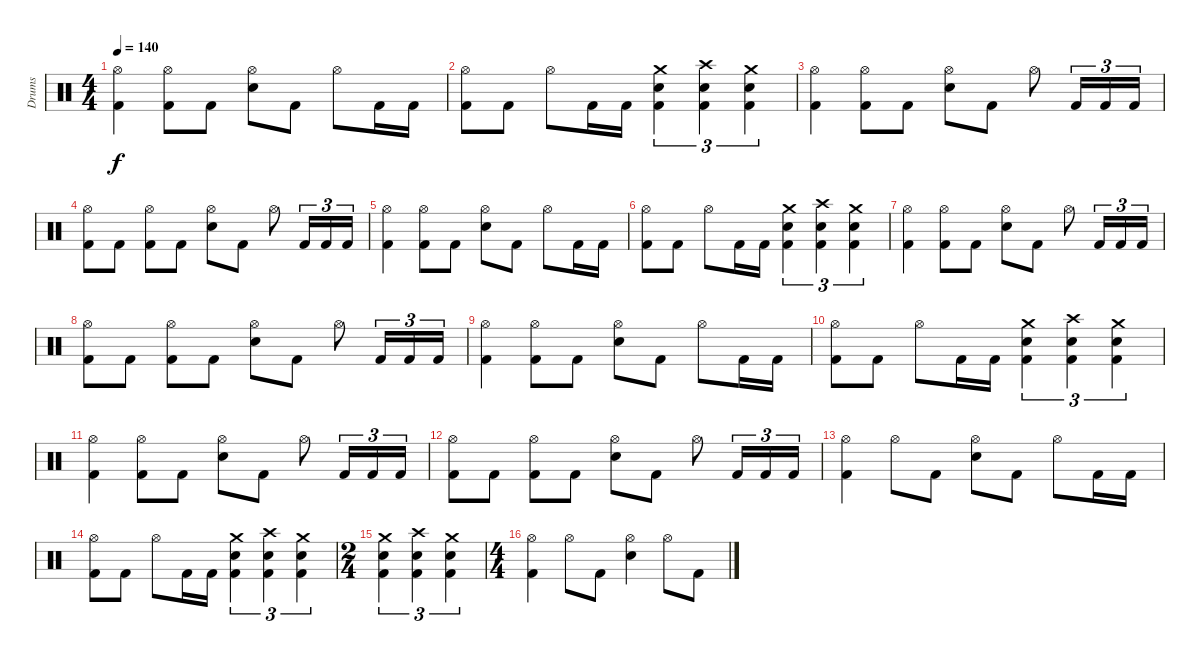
\track ("Drums" "Drums") {instrument percussion}
\staff {score}
\articulation defaults
\ts (4 4)
\tempo 140
\clef neutral
\ks c
("Hi-Hat (open)" "Kick (hit) 2").4{dy f} ("Kick (hit) 2" "Hi-Hat (open)").8 "Kick (hit) 2".8 ("Hi-Hat (open)" "Electric Snare (hit)").8 "Kick (hit) 2".8 "Hi-Hat (open)".8 "Kick (hit) 2".16 "Kick (hit) 2".16 |
("Hi-Hat (open)" "Kick (hit) 2").8 "Kick (hit) 2".8 "Hi-Hat (open)".8 "Kick (hit) 2".16 "Kick (hit) 2".16 ("Electric Snare (hit)" "Kick (hit) 2" "Crash medium (hit)").4{tu (3 2)} ("Electric Snare (hit)" "Kick (hit) 2" "Crash high (hit)").4{tu (3 2)} ("Electric Snare (hit)" "Kick (hit) 2" "Crash medium (hit)").4{tu (3 2)} |
("Hi-Hat (open)" "Kick (hit) 2").4 ("Hi-Hat (open)" "Kick (hit) 2").8 "Kick (hit) 2".8 ("Hi-Hat (open)" "Electric Snare (hit)").8 "Kick (hit) 2".8 "Hi-Hat (open)".8 "Kick (hit) 2".16{tu (3 2)} "Kick (hit) 2".16{tu (3 2)} "Kick (hit) 2".16{tu (3 2)} |
("Kick (hit) 2" "Hi-Hat (open)").8 "Kick (hit) 2".8 ("Kick (hit) 2" "Hi-Hat (open)").8 "Kick (hit) 2".8 ("Electric Snare (hit)" "Hi-Hat (open)").8 "Kick (hit) 2".8 "Hi-Hat (open)".8 "Kick (hit) 2".16{tu (3 2)} "Kick (hit) 2".16{tu (3 2)} "Kick (hit) 2".16{tu (3 2)} |
("Hi-Hat (open)" "Kick (hit) 2").4 ("Kick (hit) 2" "Hi-Hat (open)").8 "Kick (hit) 2".8 ("Hi-Hat (open)" "Electric Snare (hit)").8 "Kick (hit) 2".8 "Hi-Hat (open)".8 "Kick (hit) 2".16 "Kick (hit) 2".16 |
("Hi-Hat (open)" "Kick (hit) 2").8 "Kick (hit) 2".8 "Hi-Hat (open)".8 "Kick (hit) 2".16 "Kick (hit) 2".16 ("Electric Snare (hit)" "Kick (hit) 2" "Crash medium (hit)").4{tu (3 2)} ("Electric Snare (hit)" "Kick (hit) 2" "Crash high (hit)").4{tu (3 2)} ("Electric Snare (hit)" "Kick (hit) 2" "Crash medium (hit)").4{tu (3 2)} |
("Hi-Hat (open)" "Kick (hit) 2").4 ("Hi-Hat (open)" "Kick (hit) 2").8 "Kick (hit) 2".8 ("Hi-Hat (open)" "Electric Snare (hit)").8 "Kick (hit) 2".8 "Hi-Hat (open)".8 "Kick (hit) 2".16{tu (3 2)} "Kick (hit) 2".16{tu (3 2)} "Kick (hit) 2".16{tu (3 2)} |
("Kick (hit) 2" "Hi-Hat (open)").8 "Kick (hit) 2".8 ("Kick (hit) 2" "Hi-Hat (open)").8 "Kick (hit) 2".8 ("Electric Snare (hit)" "Hi-Hat (open)").8 "Kick (hit) 2".8 "Hi-Hat (open)".8 "Kick (hit) 2".16{tu (3 2)} "Kick (hit) 2".16{tu (3 2)} "Kick (hit) 2".16{tu (3 2)} |
("Hi-Hat (open)" "Kick (hit) 2").4 ("Kick (hit) 2" "Hi-Hat (open)").8 "Kick (hit) 2".8 ("Hi-Hat (open)" "Electric Snare (hit)").8 "Kick (hit) 2".8 "Hi-Hat (open)".8 "Kick (hit) 2".16 "Kick (hit) 2".16 |
("Hi-Hat (open)" "Kick (hit) 2").8 "Kick (hit) 2".8 "Hi-Hat (open)".8 "Kick (hit) 2".16 "Kick (hit) 2".16 ("Electric Snare (hit)" "Kick (hit) 2" "Crash medium (hit)").4{tu (3 2)} ("Electric Snare (hit)" "Kick (hit) 2" "Crash high (hit)").4{tu (3 2)} ("Electric Snare (hit)" "Kick (hit) 2" "Crash medium (hit)").4{tu (3 2)} |
("Hi-Hat (open)" "Kick (hit) 2").4 ("Hi-Hat (open)" "Kick (hit) 2").8 "Kick (hit) 2".8 ("Hi-Hat (open)" "Electric Snare (hit)").8 "Kick (hit) 2".8 "Hi-Hat (open)".8 "Kick (hit) 2".16{tu (3 2)} "Kick (hit) 2".16{tu (3 2)} "Kick (hit) 2".16{tu (3 2)} |
("Kick (hit) 2" "Hi-Hat (open)").8 "Kick (hit) 2".8 ("Kick (hit) 2" "Hi-Hat (open)").8 "Kick (hit) 2".8 ("Electric Snare (hit)" "Hi-Hat (open)").8 "Kick (hit) 2".8 "Hi-Hat (open)".8 "Kick (hit) 2".16{tu (3 2)} "Kick (hit) 2".16{tu (3 2)} "Kick (hit) 2".16{tu (3 2)} |
("Hi-Hat (open)" "Kick (hit) 2").4 "Hi-Hat (open)".8 "Kick (hit) 2".8 ("Hi-Hat (open)" "Electric Snare (hit)").8 "Kick (hit) 2".8 "Hi-Hat (open)".8 "Kick (hit) 2".16 "Kick (hit) 2".16 |
("Hi-Hat (open)" "Kick (hit) 2").8 "Kick (hit) 2".8 "Hi-Hat (open)".8 "Kick (hit) 2".16 "Kick (hit) 2".16 ("Electric Snare (hit)" "Kick (hit) 2" "Crash medium (hit)").4{tu (3 2)} ("Electric Snare (hit)" "Kick (hit) 2" "Crash high (hit)").4{tu (3 2)} ("Electric Snare (hit)" "Kick (hit) 2" "Crash medium (hit)").4{tu (3 2)} |
\ts (2 4)
("Electric Snare (hit)" "Kick (hit) 2" "Crash medium (hit)").4{tu (3 2)} ("Electric Snare (hit)" "Kick (hit) 2" "Crash high (hit)").4{tu (3 2)} ("Electric Snare (hit)" "Kick (hit) 2" "Crash medium (hit)").4{tu (3 2)} |
\ts (4 4)
("Hi-Hat (open)" "Kick (hit) 2").4 "Hi-Hat (open)".8 "Kick (hit) 2".8 ("Hi-Hat (open)" "Electric Snare (hit)").4 "Hi-Hat (open)".8 "Kick (hit) 2".8
